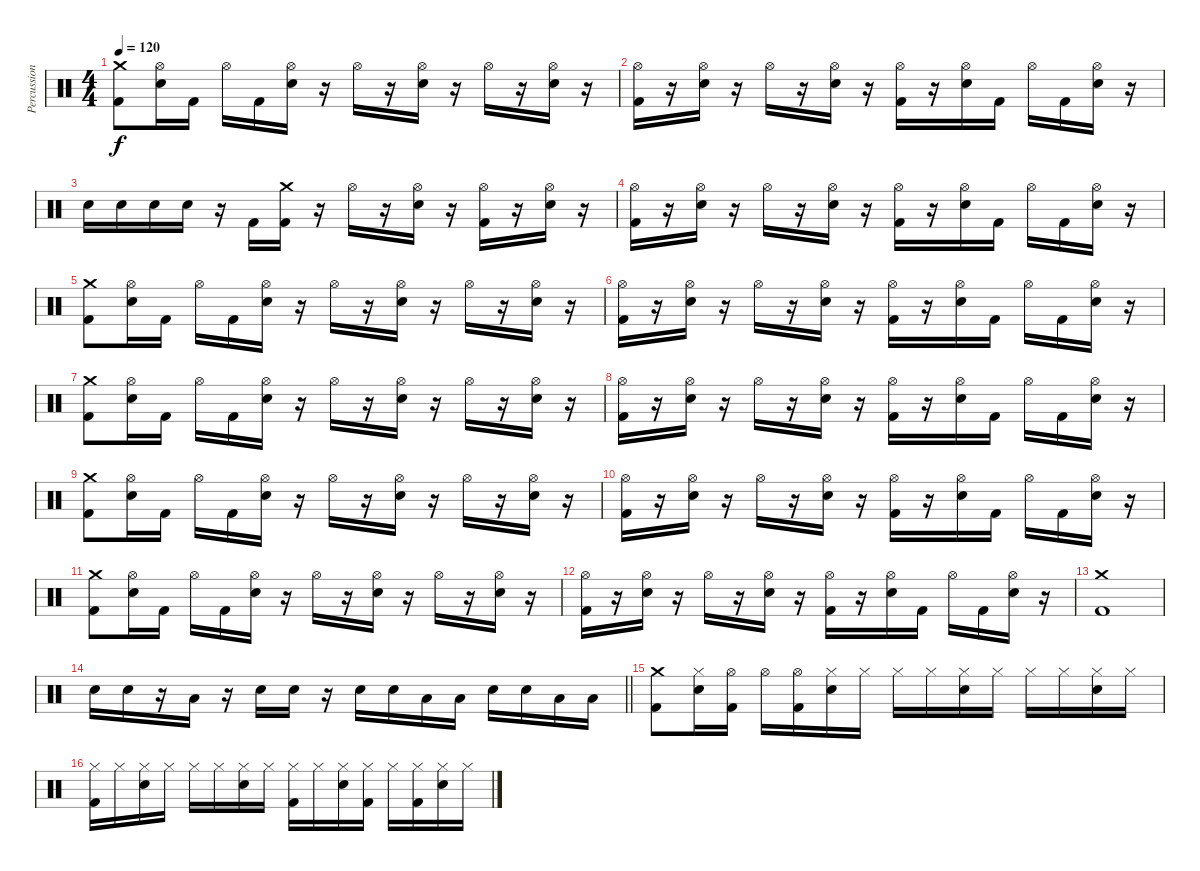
\track ("Percussion" "Percussion") {instrument percussion}
\staff {score}
\articulation defaults
\ts (4 4)
\tempo 120
\clef neutral
\ks c
("Crash medium (hit)" "Kick (hit) 2").8{dy f} ("Hi-Hat (open)" "Electric Snare (hit)").16 "Kick (hit) 2".16 "Hi-Hat (open)".16 "Kick (hit) 2".16 ("Hi-Hat (open)" "Electric Snare (hit)").16 r.16 "Hi-Hat (open)".16 r.16 ("Hi-Hat (open)" "Electric Snare (hit)").16 r.16 "Hi-Hat (open)".16 r.16 ("Hi-Hat (open)" "Electric Snare (hit)").16 r.16 |
("Hi-Hat (open)" "Kick (hit) 2").16 r.16 ("Hi-Hat (open)" "Electric Snare (hit)").16 r.16 "Hi-Hat (open)".16 r.16 ("Hi-Hat (open)" "Electric Snare (hit)").16 r.16 ("Hi-Hat (open)" "Kick (hit) 2").16 r.16 ("Hi-Hat (open)" "Electric Snare (hit)").16 "Kick (hit) 2".16 "Hi-Hat (open)".16 "Kick (hit) 2".16 ("Hi-Hat (open)" "Electric Snare (hit)").16 r.16 |
"Electric Snare (hit)".16 "Electric Snare (hit)".16 "Electric Snare (hit)".16 "Electric Snare (hit)".16 r.16 "Kick (hit) 2".16 ("Crash medium (hit)" "Kick (hit) 2").16 r.16 "Hi-Hat (open)".16 r.16 ("Hi-Hat (open)" "Electric Snare (hit)").16 r.16 ("Hi-Hat (open)" "Kick (hit) 2").16 r.16 ("Hi-Hat (open)" "Electric Snare (hit)").16 r.16 |
("Hi-Hat (open)" "Kick (hit) 2").16 r.16 ("Hi-Hat (open)" "Electric Snare (hit)").16 r.16 "Hi-Hat (open)".16 r.16 ("Hi-Hat (open)" "Electric Snare (hit)").16 r.16 ("Hi-Hat (open)" "Kick (hit) 2").16 r.16 ("Hi-Hat (open)" "Electric Snare (hit)").16 "Kick (hit) 2".16 "Hi-Hat (open)".16 "Kick (hit) 2".16 ("Hi-Hat (open)" "Electric Snare (hit)").16 r.16 |
("Crash medium (hit)" "Kick (hit) 2").8 ("Hi-Hat (open)" "Electric Snare (hit)").16 "Kick (hit) 2".16 "Hi-Hat (open)".16 "Kick (hit) 2".16 ("Hi-Hat (open)" "Electric Snare (hit)").16 r.16 "Hi-Hat (open)".16 r.16 ("Hi-Hat (open)" "Electric Snare (hit)").16 r.16 "Hi-Hat (open)".16 r.16 ("Hi-Hat (open)" "Electric Snare (hit)").16 r.16 |
("Hi-Hat (open)" "Kick (hit) 2").16 r.16 ("Hi-Hat (open)" "Electric Snare (hit)").16 r.16 "Hi-Hat (open)".16 r.16 ("Hi-Hat (open)" "Electric Snare (hit)").16 r.16 ("Hi-Hat (open)" "Kick (hit) 2").16 r.16 ("Hi-Hat (open)" "Electric Snare (hit)").16 "Kick (hit) 2".16 "Hi-Hat (open)".16 "Kick (hit) 2".16 ("Hi-Hat (open)" "Electric Snare (hit)").16 r.16 |
("Crash medium (hit)" "Kick (hit) 2").8 ("Hi-Hat (open)" "Electric Snare (hit)").16 "Kick (hit) 2".16 "Hi-Hat (open)".16 "Kick (hit) 2".16 ("Hi-Hat (open)" "Electric Snare (hit)").16 r.16 "Hi-Hat (open)".16 r.16 ("Hi-Hat (open)" "Electric Snare (hit)").16 r.16 "Hi-Hat (open)".16 r.16 ("Hi-Hat (open)" "Electric Snare (hit)").16 r.16 |
("Hi-Hat (open)" "Kick (hit) 2").16 r.16 ("Hi-Hat (open)" "Electric Snare (hit)").16 r.16 "Hi-Hat (open)".16 r.16 ("Hi-Hat (open)" "Electric Snare (hit)").16 r.16 ("Hi-Hat (open)" "Kick (hit) 2").16 r.16 ("Hi-Hat (open)" "Electric Snare (hit)").16 "Kick (hit) 2".16 "Hi-Hat (open)".16 "Kick (hit) 2".16 ("Hi-Hat (open)" "Electric Snare (hit)").16 r.16 |
("Crash medium (hit)" "Kick (hit) 2").8 ("Hi-Hat (open)" "Electric Snare (hit)").16 "Kick (hit) 2".16 "Hi-Hat (open)".16 "Kick (hit) 2".16 ("Hi-Hat (open)" "Electric Snare (hit)").16 r.16 "Hi-Hat (open)".16 r.16 ("Hi-Hat (open)" "Electric Snare (hit)").16 r.16 "Hi-Hat (open)".16 r.16 ("Hi-Hat (open)" "Electric Snare (hit)").16 r.16 |
("Hi-Hat (open)" "Kick (hit) 2").16 r.16 ("Hi-Hat (open)" "Electric Snare (hit)").16 r.16 "Hi-Hat (open)".16 r.16 ("Hi-Hat (open)" "Electric Snare (hit)").16 r.16 ("Hi-Hat (open)" "Kick (hit) 2").16 r.16 ("Hi-Hat (open)" "Electric Snare (hit)").16 "Kick (hit) 2".16 "Hi-Hat (open)".16 "Kick (hit) 2".16 ("Hi-Hat (open)" "Electric Snare (hit)").16 r.16 |
("Crash medium (hit)" "Kick (hit) 2").8 ("Hi-Hat (open)" "Electric Snare (hit)").16 "Kick (hit) 2".16 "Hi-Hat (open)".16 "Kick (hit) 2".16 ("Hi-Hat (open)" "Electric Snare (hit)").16 r.16 "Hi-Hat (open)".16 r.16 ("Hi-Hat (open)" "Electric Snare (hit)").16 r.16 "Hi-Hat (open)".16 r.16 ("Hi-Hat (open)" "Electric Snare (hit)").16 r.16 |
("Hi-Hat (open)" "Kick (hit) 2").16 r.16 ("Hi-Hat (open)" "Electric Snare (hit)").16 r.16 "Hi-Hat (open)".16 r.16 ("Hi-Hat (open)" "Electric Snare (hit)").16 r.16 ("Hi-Hat (open)" "Kick (hit) 2").16 r.16 ("Hi-Hat (open)" "Electric Snare (hit)").16 "Kick (hit) 2".16 "Hi-Hat (open)".16 "Kick (hit) 2".16 ("Hi-Hat (open)" "Electric Snare (hit)").16 r.16 |
("Crash medium (hit)" "Kick (hit) 2").1 |
\barLineRight lightlight "Electric Snare (hit)".16 "Electric Snare (hit)".16
r.16 "Low Tom (hit)".16 r.16 "Electric Snare (hit)".16 "Electric Snare (hit)".16 r.16 "Electric Snare (hit)".16 "Electric Snare (hit)".16 "Low Tom (hit)".16 "Low Tom (hit)".16 "Electric Snare (hit)".16 "Electric Snare (hit)".16 "Low Tom (hit)".16 "Low Tom (hit)".16 |
("Crash medium (hit)" "Kick (hit) 2").8 ("Hi-Hat (closed)" "Electric Snare (hit)").16 ("Hi-Hat (open)" "Kick (hit) 2").16 "Hi-Hat (open)".16 ("Hi-Hat (open)" "Kick (hit) 2").16 ("Hi-Hat (closed)" "Electric Snare (hit)").16 "Hi-Hat (closed)".16 "Hi-Hat (closed)".16 "Hi-Hat (closed)".16 ("Hi-Hat (closed)" "Electric Snare (hit)").16 "Hi-Hat (closed)".16 "Hi-Hat (closed)".16 "Hi-Hat (closed)".16 ("Hi-Hat (closed)" "Electric Snare (hit)").16 "Hi-Hat (closed)".16 |
("Hi-Hat (closed)" "Kick (hit) 2").16 "Hi-Hat (closed)".16 ("Hi-Hat (closed)" "Electric Snare (hit)").16 "Hi-Hat (closed)".16 "Hi-Hat (closed)".16 "Hi-Hat (closed)".16 ("Hi-Hat (closed)" "Electric Snare (hit)").16 "Hi-Hat (closed)".16 ("Hi-Hat (closed)" "Kick (hit) 2").16 "Hi-Hat (closed)".16 ("Hi-Hat (closed)" "Electric Snare (hit)").16 ("Hi-Hat (closed)" "Kick (hit) 2").16 "Hi-Hat (closed)".16 ("Hi-Hat (closed)" "Kick (hit) 2").16 ("Hi-Hat (closed)" "Electric Snare (hit)").16 "Hi-Hat (closed)".16
